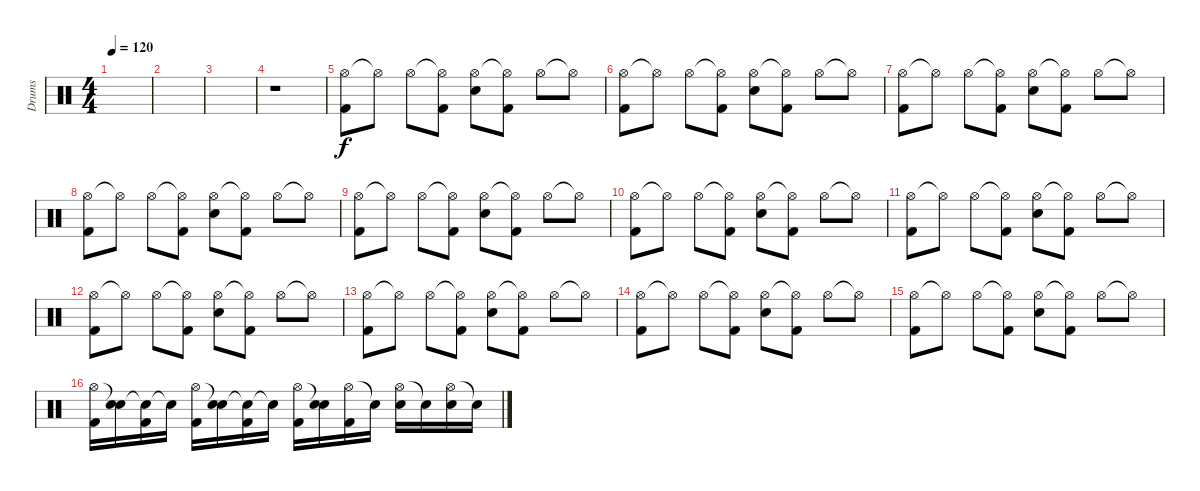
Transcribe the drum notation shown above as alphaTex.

\track ("Drums" "Drums") {instrument percussion}
\staff {score}
\articulation defaults
\ts (4 4)
\tempo 120
\clef neutral
\ks c
|
|
|
r.1 |
("Hi-Hat (open)" "Kick (hit) 2").8 "Hi-Hat (open)"{t}.8 "Hi-Hat (open)".8 ("Hi-Hat (open)"{t} "Kick (hit) 2").8 ("Hi-Hat (open)" "Electric Snare (hit)").8 ("Hi-Hat (open)"{t} "Kick (hit) 2").8 "Hi-Hat (open)".8 "Hi-Hat (open)"{t}.8 |
("Hi-Hat (open)" "Kick (hit) 2").8 "Hi-Hat (open)"{t}.8 "Hi-Hat (open)".8 ("Hi-Hat (open)"{t} "Kick (hit) 2").8 ("Hi-Hat (open)" "Electric Snare (hit)").8 ("Hi-Hat (open)"{t} "Kick (hit) 2").8 "Hi-Hat (open)".8 "Hi-Hat (open)"{t}.8 |
("Hi-Hat (open)" "Kick (hit) 2").8 "Hi-Hat (open)"{t}.8 "Hi-Hat (open)".8 ("Hi-Hat (open)"{t} "Kick (hit) 2").8 ("Hi-Hat (open)" "Electric Snare (hit)").8 ("Hi-Hat (open)"{t} "Kick (hit) 2").8 "Hi-Hat (open)".8 "Hi-Hat (open)"{t}.8 |
("Hi-Hat (open)" "Kick (hit) 2").8 "Hi-Hat (open)"{t}.8 "Hi-Hat (open)".8 ("Hi-Hat (open)"{t} "Kick (hit) 2").8 ("Hi-Hat (open)" "Electric Snare (hit)").8 ("Hi-Hat (open)"{t} "Kick (hit) 2").8 "Hi-Hat (open)".8 "Hi-Hat (open)"{t}.8 |
("Hi-Hat (open)" "Kick (hit) 2").8 "Hi-Hat (open)"{t}.8 "Hi-Hat (open)".8 ("Hi-Hat (open)"{t} "Kick (hit) 2").8 ("Hi-Hat (open)" "Electric Snare (hit)").8 ("Hi-Hat (open)"{t} "Kick (hit) 2").8 "Hi-Hat (open)".8 "Hi-Hat (open)"{t}.8 |
("Hi-Hat (open)" "Kick (hit) 2").8 "Hi-Hat (open)"{t}.8 "Hi-Hat (open)".8 ("Hi-Hat (open)"{t} "Kick (hit) 2").8 ("Hi-Hat (open)" "Electric Snare (hit)").8 ("Hi-Hat (open)"{t} "Kick (hit) 2").8 "Hi-Hat (open)".8 "Hi-Hat (open)"{t}.8 |
("Hi-Hat (open)" "Kick (hit) 2").8 "Hi-Hat (open)"{t}.8 "Hi-Hat (open)".8 ("Hi-Hat (open)"{t} "Kick (hit) 2").8 ("Hi-Hat (open)" "Electric Snare (hit)").8 ("Hi-Hat (open)"{t} "Kick (hit) 2").8 "Hi-Hat (open)".8 "Hi-Hat (open)"{t}.8 |
("Hi-Hat (open)" "Kick (hit) 2").8 "Hi-Hat (open)"{t}.8 "Hi-Hat (open)".8 ("Hi-Hat (open)"{t} "Kick (hit) 2").8 ("Hi-Hat (open)" "Electric Snare (hit)").8 ("Hi-Hat (open)"{t} "Kick (hit) 2").8 "Hi-Hat (open)".8 "Hi-Hat (open)"{t}.8 |
("Hi-Hat (open)" "Kick (hit) 2").8 "Hi-Hat (open)"{t}.8 "Hi-Hat (open)".8 ("Hi-Hat (open)"{t} "Kick (hit) 2").8 ("Hi-Hat (open)" "Electric Snare (hit)").8 ("Hi-Hat (open)"{t} "Kick (hit) 2").8 "Hi-Hat (open)".8 "Hi-Hat (open)"{t}.8 |
("Hi-Hat (open)" "Kick (hit) 2").8 "Hi-Hat (open)"{t}.8 "Hi-Hat (open)".8 ("Hi-Hat (open)"{t} "Kick (hit) 2").8 ("Hi-Hat (open)" "Electric Snare (hit)").8 ("Hi-Hat (open)"{t} "Kick (hit) 2").8 "Hi-Hat (open)".8 "Hi-Hat (open)"{t}.8 |
("Hi-Hat (open)" "Kick (hit) 2").8 "Hi-Hat (open)"{t}.8 "Hi-Hat (open)".8 ("Hi-Hat (open)"{t} "Kick (hit) 2").8 ("Hi-Hat (open)" "Electric Snare (hit)").8 ("Hi-Hat (open)"{t} "Kick (hit) 2").8 "Hi-Hat (open)".8 "Hi-Hat (open)"{t}.8 |
("Hi-Hat (open)" "Kick (hit) 2").16 ("Snare (hit)"{t} "Electric Snare (hit)").16 ("Snare (hit)"{t} "Kick (hit) 2").16 "Snare (hit)"{t}.16 ("Hi-Hat (open)" "Kick (hit) 2").16 ("Snare (hit)"{t} "Electric Snare (hit)").16 ("Snare (hit)"{t} "Kick (hit) 2").16 "Snare (hit)"{t}.16 ("Hi-Hat (open)" "Kick (hit) 2").16 ("Snare (hit)"{t} "Electric Snare (hit)").16 ("Hi-Hat (open)" "Kick (hit) 2").16 "Snare (hit)"{t}.16 ("Hi-Hat (open)" "Electric Snare (hit)").16 "Snare (hit)"{t}.16 ("Hi-Hat (open)" "Electric Snare (hit)").16 "Snare (hit)"{t}.16
